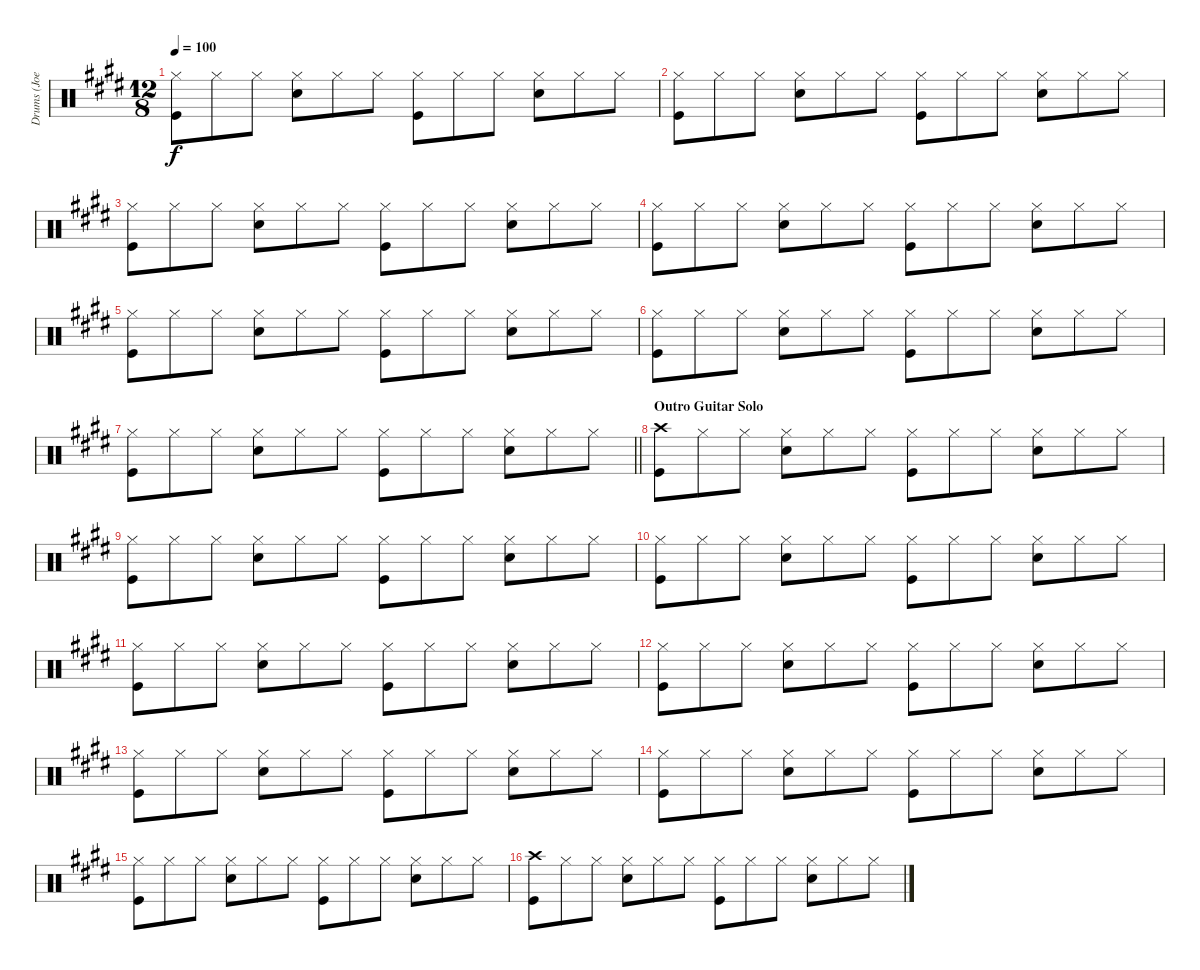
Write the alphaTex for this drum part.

\track ("Drums (Joey Kramer)" "Drums (Joe") {instrument percussion}
\staff {score}
\articulation defaults
\ts (12 8)
\tempo 100
\clef neutral
\ks c#minor
("Hi-Hat (closed)" "Kick (hit)").8{dy f} "Hi-Hat (closed)".8 "Hi-Hat (closed)".8 ("Hi-Hat (closed)" "Electric Snare (hit)").8 "Hi-Hat (closed)".8 "Hi-Hat (closed)".8 ("Hi-Hat (closed)" "Kick (hit)").8 "Hi-Hat (closed)".8 "Hi-Hat (closed)".8 ("Hi-Hat (closed)" "Electric Snare (hit)").8 "Hi-Hat (closed)".8 "Hi-Hat (closed)".8 |
("Hi-Hat (closed)" "Kick (hit)").8 "Hi-Hat (closed)".8 "Hi-Hat (closed)".8 ("Hi-Hat (closed)" "Electric Snare (hit)").8 "Hi-Hat (closed)".8 "Hi-Hat (closed)".8 ("Hi-Hat (closed)" "Kick (hit)").8 "Hi-Hat (closed)".8 "Hi-Hat (closed)".8 ("Hi-Hat (closed)" "Electric Snare (hit)").8 "Hi-Hat (closed)".8 "Hi-Hat (closed)".8 |
("Hi-Hat (closed)" "Kick (hit)").8 "Hi-Hat (closed)".8 "Hi-Hat (closed)".8 ("Hi-Hat (closed)" "Electric Snare (hit)").8 "Hi-Hat (closed)".8 "Hi-Hat (closed)".8 ("Hi-Hat (closed)" "Kick (hit)").8 "Hi-Hat (closed)".8 "Hi-Hat (closed)".8 ("Hi-Hat (closed)" "Electric Snare (hit)").8 "Hi-Hat (closed)".8 "Hi-Hat (closed)".8 |
("Hi-Hat (closed)" "Kick (hit)").8 "Hi-Hat (closed)".8 "Hi-Hat (closed)".8 ("Hi-Hat (closed)" "Electric Snare (hit)").8 "Hi-Hat (closed)".8 "Hi-Hat (closed)".8 ("Hi-Hat (closed)" "Kick (hit)").8 "Hi-Hat (closed)".8 "Hi-Hat (closed)".8 ("Hi-Hat (closed)" "Electric Snare (hit)").8 "Hi-Hat (closed)".8 "Hi-Hat (closed)".8 |
("Hi-Hat (closed)" "Kick (hit)").8 "Hi-Hat (closed)".8 "Hi-Hat (closed)".8 ("Hi-Hat (closed)" "Electric Snare (hit)").8 "Hi-Hat (closed)".8 "Hi-Hat (closed)".8 ("Hi-Hat (closed)" "Kick (hit)").8 "Hi-Hat (closed)".8 "Hi-Hat (closed)".8 ("Hi-Hat (closed)" "Electric Snare (hit)").8 "Hi-Hat (closed)".8 "Hi-Hat (closed)".8 |
("Hi-Hat (closed)" "Kick (hit)").8 "Hi-Hat (closed)".8 "Hi-Hat (closed)".8 ("Hi-Hat (closed)" "Electric Snare (hit)").8 "Hi-Hat (closed)".8 "Hi-Hat (closed)".8 ("Hi-Hat (closed)" "Kick (hit)").8 "Hi-Hat (closed)".8 "Hi-Hat (closed)".8 ("Hi-Hat (closed)" "Electric Snare (hit)").8 "Hi-Hat (closed)".8 "Hi-Hat (closed)".8 |
\barLineRight lightlight
("Hi-Hat (closed)" "Kick (hit)").8 "Hi-Hat (closed)".8 "Hi-Hat (closed)".8 ("Hi-Hat (closed)" "Electric Snare (hit)").8 "Hi-Hat (closed)".8 "Hi-Hat (closed)".8 ("Hi-Hat (closed)" "Kick (hit)").8 "Hi-Hat (closed)".8 "Hi-Hat (closed)".8 ("Hi-Hat (closed)" "Electric Snare (hit)").8 "Hi-Hat (closed)".8 "Hi-Hat (closed)".8 |
\section ("" "Outro Guitar Solo")
("Crash high (hit)" "Kick (hit)").8 "Hi-Hat (closed)".8 "Hi-Hat (closed)".8 ("Hi-Hat (closed)" "Electric Snare (hit)").8 "Hi-Hat (closed)".8 "Hi-Hat (closed)".8 ("Hi-Hat (closed)" "Kick (hit)").8 "Hi-Hat (closed)".8 "Hi-Hat (closed)".8 ("Hi-Hat (closed)" "Electric Snare (hit)").8 "Hi-Hat (closed)".8 "Hi-Hat (closed)".8 |
("Hi-Hat (closed)" "Kick (hit)").8 "Hi-Hat (closed)".8 "Hi-Hat (closed)".8 ("Hi-Hat (closed)" "Electric Snare (hit)").8 "Hi-Hat (closed)".8 "Hi-Hat (closed)".8 ("Hi-Hat (closed)" "Kick (hit)").8 "Hi-Hat (closed)".8 "Hi-Hat (closed)".8 ("Hi-Hat (closed)" "Electric Snare (hit)").8 "Hi-Hat (closed)".8 "Hi-Hat (closed)".8 |
("Hi-Hat (closed)" "Kick (hit)").8 "Hi-Hat (closed)".8 "Hi-Hat (closed)".8 ("Hi-Hat (closed)" "Electric Snare (hit)").8 "Hi-Hat (closed)".8 "Hi-Hat (closed)".8 ("Hi-Hat (closed)" "Kick (hit)").8 "Hi-Hat (closed)".8 "Hi-Hat (closed)".8 ("Hi-Hat (closed)" "Electric Snare (hit)").8 "Hi-Hat (closed)".8 "Hi-Hat (closed)".8 |
("Hi-Hat (closed)" "Kick (hit)").8 "Hi-Hat (closed)".8 "Hi-Hat (closed)".8 ("Hi-Hat (closed)" "Electric Snare (hit)").8 "Hi-Hat (closed)".8 "Hi-Hat (closed)".8 ("Hi-Hat (closed)" "Kick (hit)").8 "Hi-Hat (closed)".8 "Hi-Hat (closed)".8 ("Hi-Hat (closed)" "Electric Snare (hit)").8 "Hi-Hat (closed)".8 "Hi-Hat (closed)".8 |
("Hi-Hat (closed)" "Kick (hit)").8 "Hi-Hat (closed)".8 "Hi-Hat (closed)".8 ("Hi-Hat (closed)" "Electric Snare (hit)").8 "Hi-Hat (closed)".8 "Hi-Hat (closed)".8 ("Hi-Hat (closed)" "Kick (hit)").8 "Hi-Hat (closed)".8 "Hi-Hat (closed)".8 ("Hi-Hat (closed)" "Electric Snare (hit)").8 "Hi-Hat (closed)".8 "Hi-Hat (closed)".8 |
("Hi-Hat (closed)" "Kick (hit)").8 "Hi-Hat (closed)".8 "Hi-Hat (closed)".8 ("Hi-Hat (closed)" "Electric Snare (hit)").8 "Hi-Hat (closed)".8 "Hi-Hat (closed)".8 ("Hi-Hat (closed)" "Kick (hit)").8 "Hi-Hat (closed)".8 "Hi-Hat (closed)".8 ("Hi-Hat (closed)" "Electric Snare (hit)").8 "Hi-Hat (closed)".8 "Hi-Hat (closed)".8 |
("Hi-Hat (closed)" "Kick (hit)").8 "Hi-Hat (closed)".8 "Hi-Hat (closed)".8 ("Hi-Hat (closed)" "Electric Snare (hit)").8 "Hi-Hat (closed)".8 "Hi-Hat (closed)".8 ("Hi-Hat (closed)" "Kick (hit)").8 "Hi-Hat (closed)".8 "Hi-Hat (closed)".8 ("Hi-Hat (closed)" "Electric Snare (hit)").8 "Hi-Hat (closed)".8 "Hi-Hat (closed)".8 |
("Hi-Hat (closed)" "Kick (hit)").8 "Hi-Hat (closed)".8 "Hi-Hat (closed)".8 ("Hi-Hat (closed)" "Electric Snare (hit)").8 "Hi-Hat (closed)".8 "Hi-Hat (closed)".8 ("Hi-Hat (closed)" "Kick (hit)").8 "Hi-Hat (closed)".8 "Hi-Hat (closed)".8 ("Hi-Hat (closed)" "Electric Snare (hit)").8 "Hi-Hat (closed)".8 "Hi-Hat (closed)".8 |
("Crash high (hit)" "Kick (hit)").8 "Hi-Hat (closed)".8 "Hi-Hat (closed)".8 ("Hi-Hat (closed)" "Electric Snare (hit)").8 "Hi-Hat (closed)".8 "Hi-Hat (closed)".8 ("Hi-Hat (closed)" "Kick (hit)").8 "Hi-Hat (closed)".8 "Hi-Hat (closed)".8 ("Hi-Hat (closed)" "Electric Snare (hit)").8 "Hi-Hat (closed)".8 "Hi-Hat (closed)".8
